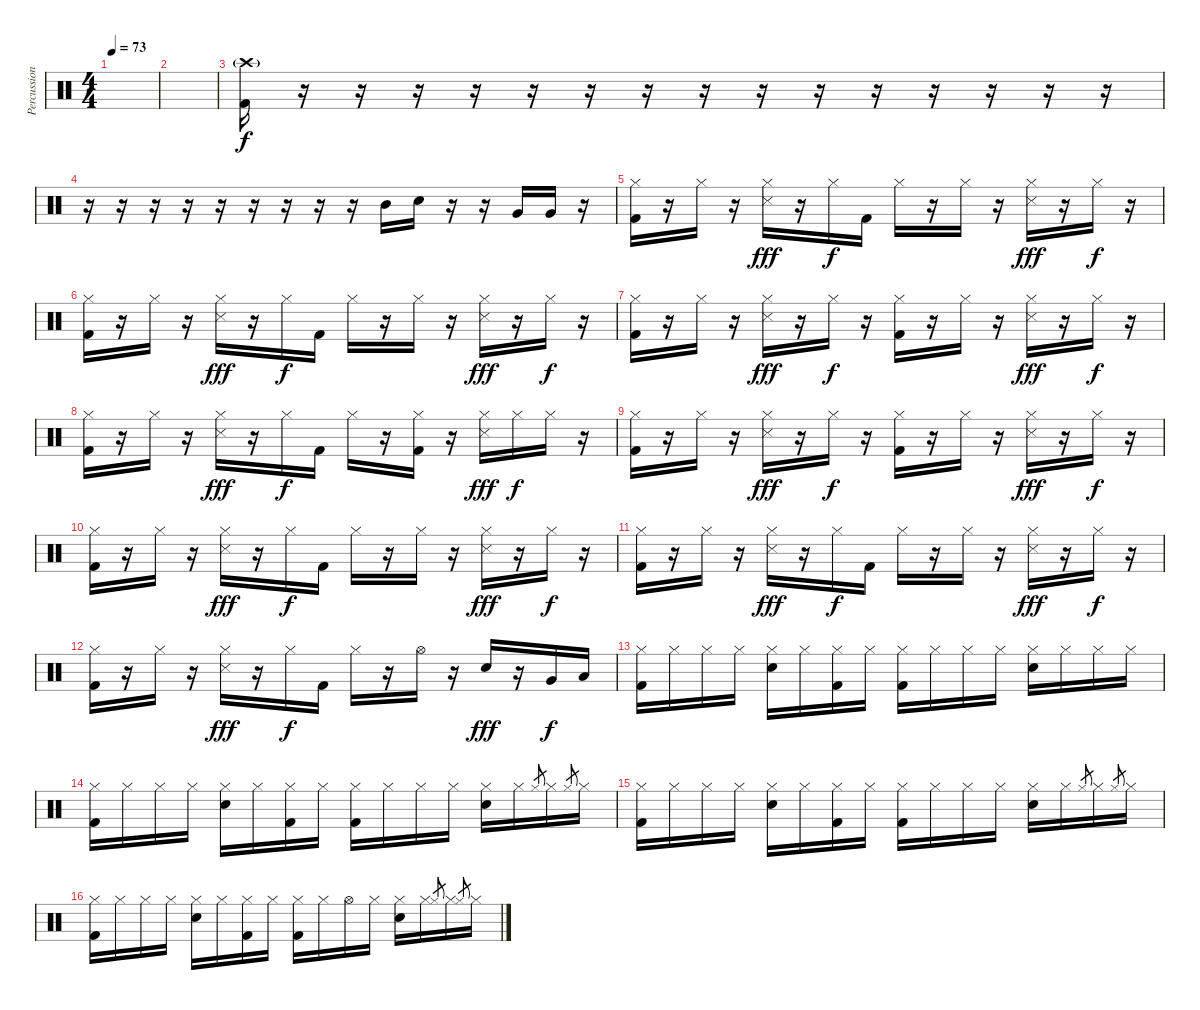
\track ("Percussion" "Percussion") {instrument percussion}
\staff {score}
\articulation defaults
\ts (4 4)
\tempo 73
\clef neutral
\ks c
|
|
("Crash high (hit)"{g} "Kick (hit) 2").16 r.16 r.16 r.16 r.16 r.16 r.16 r.16 r.16 r.16 r.16 r.16 r.16 r.16 r.16 r.16 |
r.16 r.16 r.16 r.16 r.16 r.16 r.16 r.16 r.16 "Mid Tom (hit)".16{dy f} "Snare (hit) 2".16 r.16 r.16 "Very Low Tom (hit)".16 "Very Low Tom (hit)".16 r.16 |
("Hi-Hat (closed)" "Kick (hit) 2").16 r.16 "Hi-Hat (closed)".16 r.16 ("Hi-Hat (closed)" "Snare (side stick) 3").16{dy fff} r.16 "Hi-Hat (closed)".16{dy f} "Kick (hit) 2".16 "Hi-Hat (closed)".16 r.16 "Hi-Hat (closed)".16 r.16 ("Hi-Hat (closed)" "Snare (side stick) 3").16{dy fff} r.16 "Hi-Hat (closed)".16{dy f} r.16 |
("Hi-Hat (closed)" "Kick (hit) 2").16 r.16 "Hi-Hat (closed)".16 r.16 ("Hi-Hat (closed)" "Snare (side stick) 3").16{dy fff} r.16 "Hi-Hat (closed)".16{dy f} "Kick (hit) 2".16 "Hi-Hat (closed)".16 r.16 "Hi-Hat (closed)".16 r.16 ("Hi-Hat (closed)" "Snare (side stick) 3").16{dy fff} r.16 "Hi-Hat (closed)".16{dy f} r.16 |
("Hi-Hat (closed)" "Kick (hit) 2").16 r.16 "Hi-Hat (closed)".16 r.16 ("Hi-Hat (closed)" "Snare (side stick) 3").16{dy fff} r.16 "Hi-Hat (closed)".16{dy f} r.16 ("Hi-Hat (closed)" "Kick (hit) 2").16 r.16 "Hi-Hat (closed)".16 r.16 ("Hi-Hat (closed)" "Snare (side stick) 3").16{dy fff} r.16 "Hi-Hat (closed)".16{dy f} r.16 |
("Hi-Hat (closed)" "Kick (hit) 2").16 r.16 "Hi-Hat (closed)".16 r.16 ("Hi-Hat (closed)" "Snare (side stick) 3").16{dy fff} r.16 "Hi-Hat (closed)".16{dy f} "Kick (hit) 2".16 "Hi-Hat (closed)".16 r.16 ("Hi-Hat (closed)" "Kick (hit) 2").16 r.16 ("Hi-Hat (closed)" "Snare (side stick) 3").16{dy fff} "Hi-Hat (closed)".16{dy f} "Hi-Hat (closed)".16 r.16 |
("Hi-Hat (closed)" "Kick (hit) 2").16 r.16 "Hi-Hat (closed)".16 r.16 ("Hi-Hat (closed)" "Snare (side stick) 3").16{dy fff} r.16 "Hi-Hat (closed)".16{dy f} r.16 ("Hi-Hat (closed)" "Kick (hit) 2").16 r.16 "Hi-Hat (closed)".16 r.16 ("Hi-Hat (closed)" "Snare (side stick) 3").16{dy fff} r.16 "Hi-Hat (closed)".16{dy f} r.16 |
("Hi-Hat (closed)" "Kick (hit) 2").16 r.16 "Hi-Hat (closed)".16 r.16 ("Hi-Hat (closed)" "Snare (side stick) 3").16{dy fff} r.16 "Hi-Hat (closed)".16{dy f} "Kick (hit) 2".16 "Hi-Hat (closed)".16 r.16 "Hi-Hat (closed)".16 r.16 ("Hi-Hat (closed)" "Snare (side stick) 3").16{dy fff} r.16 "Hi-Hat (closed)".16{dy f} r.16 |
("Hi-Hat (closed)" "Kick (hit) 2").16 r.16 "Hi-Hat (closed)".16 r.16 ("Hi-Hat (closed)" "Snare (side stick) 3").16{dy fff} r.16 "Hi-Hat (closed)".16{dy f} "Kick (hit) 2".16 "Hi-Hat (closed)".16 r.16 "Hi-Hat (closed)".16 r.16 ("Hi-Hat (closed)" "Snare (side stick) 3").16{dy fff} r.16 "Hi-Hat (closed)".16{dy f} r.16 |
("Hi-Hat (closed)" "Kick (hit) 2").16 r.16 "Hi-Hat (closed)".16 r.16 ("Hi-Hat (closed)" "Snare (side stick) 3").16{dy fff} r.16 "Hi-Hat (closed)".16{dy f} "Kick (hit) 2".16 "Hi-Hat (closed)".16 r.16 "Hi-Hat (open)".16 r.16 "Snare (hit) 2".16{dy fff} r.16 "Very Low Tom (hit)".16{dy f} "Low Tom (hit)".16 |
("Hi-Hat (closed)" "Kick (hit) 2").16 "Hi-Hat (closed)".16 "Hi-Hat (closed)".16 "Hi-Hat (closed)".16 ("Hi-Hat (closed)" "Snare (hit) 2").16 "Hi-Hat (closed)".16 ("Hi-Hat (closed)" "Kick (hit) 2").16 "Hi-Hat (closed)".16 ("Hi-Hat (closed)" "Kick (hit) 2").16 "Hi-Hat (closed)".16 "Hi-Hat (closed)".16 "Hi-Hat (closed)".16 ("Hi-Hat (closed)" "Snare (hit) 2").16 "Hi-Hat (closed)".16 "Hi-Hat (closed)".16 "Hi-Hat (closed)".16 |
("Hi-Hat (closed)" "Kick (hit) 2").16 "Hi-Hat (closed)".16 "Hi-Hat (closed)".16 "Hi-Hat (closed)".16 ("Hi-Hat (closed)" "Snare (hit) 2").16 "Hi-Hat (closed)".16 ("Hi-Hat (closed)" "Kick (hit) 2").16 "Hi-Hat (closed)".16 ("Hi-Hat (closed)" "Kick (hit) 2").16 "Hi-Hat (closed)".16 "Hi-Hat (closed)".16 "Hi-Hat (closed)".16 ("Hi-Hat (closed)" "Snare (hit) 2").16 "Hi-Hat (closed)".16 "Hi-Hat (closed)".8{gr} "Hi-Hat (closed)".16 "Hi-Hat (closed)".8{gr} "Hi-Hat (closed)".16 |
("Hi-Hat (closed)" "Kick (hit) 2").16 "Hi-Hat (closed)".16 "Hi-Hat (closed)".16 "Hi-Hat (closed)".16 ("Hi-Hat (closed)" "Snare (hit) 2").16 "Hi-Hat (closed)".16 ("Hi-Hat (closed)" "Kick (hit) 2").16 "Hi-Hat (closed)".16 ("Hi-Hat (closed)" "Kick (hit) 2").16 "Hi-Hat (closed)".16 "Hi-Hat (closed)".16 "Hi-Hat (closed)".16 ("Hi-Hat (closed)" "Snare (hit) 2").16 "Hi-Hat (closed)".16 "Hi-Hat (closed)".8{gr} "Hi-Hat (closed)".16 "Hi-Hat (closed)".8{gr} "Hi-Hat (closed)".16 |
("Hi-Hat (closed)" "Kick (hit) 2").16 "Hi-Hat (closed)".16 "Hi-Hat (closed)".16 "Hi-Hat (closed)".16 ("Hi-Hat (closed)" "Snare (hit) 2").16 "Hi-Hat (closed)".16 ("Hi-Hat (closed)" "Kick (hit) 2").16 "Hi-Hat (closed)".16 ("Hi-Hat (closed)" "Kick (hit) 2").16 "Hi-Hat (closed)".16 "Hi-Hat (open)".16 "Hi-Hat (closed)".16 ("Hi-Hat (closed)" "Snare (hit) 2").16 "Hi-Hat (closed)".16 "Hi-Hat (closed)".8{gr} "Hi-Hat (closed)".16 "Hi-Hat (closed)".8{gr} "Hi-Hat (closed)".16
